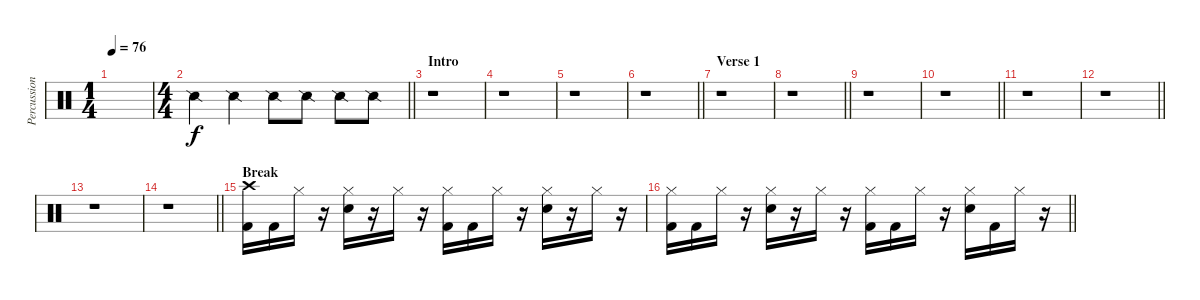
\track ("Percussion" "Percussion") {instrument percussion}
\staff {score}
\articulation defaults
\ts (1 4)
\tempo 76
\clef neutral
\ks c
|
\ts (4 4)
\barLineRight lightlight "Snare (side stick) 2".4 "Snare (side stick) 2".4 "Snare (side stick) 2".8 "Snare (side stick) 2".8 "Snare (side stick) 2".8 "Snare (side stick) 2".8
|
\section ("" "Intro")
r.1 |
r.1 |
r.1 |
\barLineRight lightlight
r.1 |
\section ("" "Verse 1")
r.1 |
\barLineRight lightlight
r.1 |
r.1 |
\barLineRight lightlight
r.1 |
r.1 |
\barLineRight lightlight
r.1 |
r.1 |
\barLineRight lightlight
r.1 |
\section ("" "Break")
("Crash high (hit)" "Kick (hit) 2").16 "Kick (hit) 2".16 "Hi-Hat (closed)".16 r.16 ("Hi-Hat (closed)" "Electric Snare (hit)").16 r.16 "Hi-Hat (closed)".16 r.16 ("Hi-Hat (closed)" "Kick (hit) 2").16 "Kick (hit) 2".16 "Hi-Hat (closed)".16 r.16 ("Hi-Hat (closed)" "Electric Snare (hit)").16 r.16 "Hi-Hat (closed)".16 r.16 |
\barLineRight lightlight
("Hi-Hat (closed)" "Kick (hit) 2").16 "Kick (hit) 2".16 "Hi-Hat (closed)".16 r.16 ("Hi-Hat (closed)" "Electric Snare (hit)").16 r.16 "Hi-Hat (closed)".16 r.16 ("Hi-Hat (closed)" "Kick (hit) 2").16 "Kick (hit) 2".16 "Hi-Hat (closed)".16 r.16 ("Hi-Hat (closed)" "Electric Snare (hit)").16 "Kick (hit) 2".16 "Hi-Hat (closed)".16 r.16
